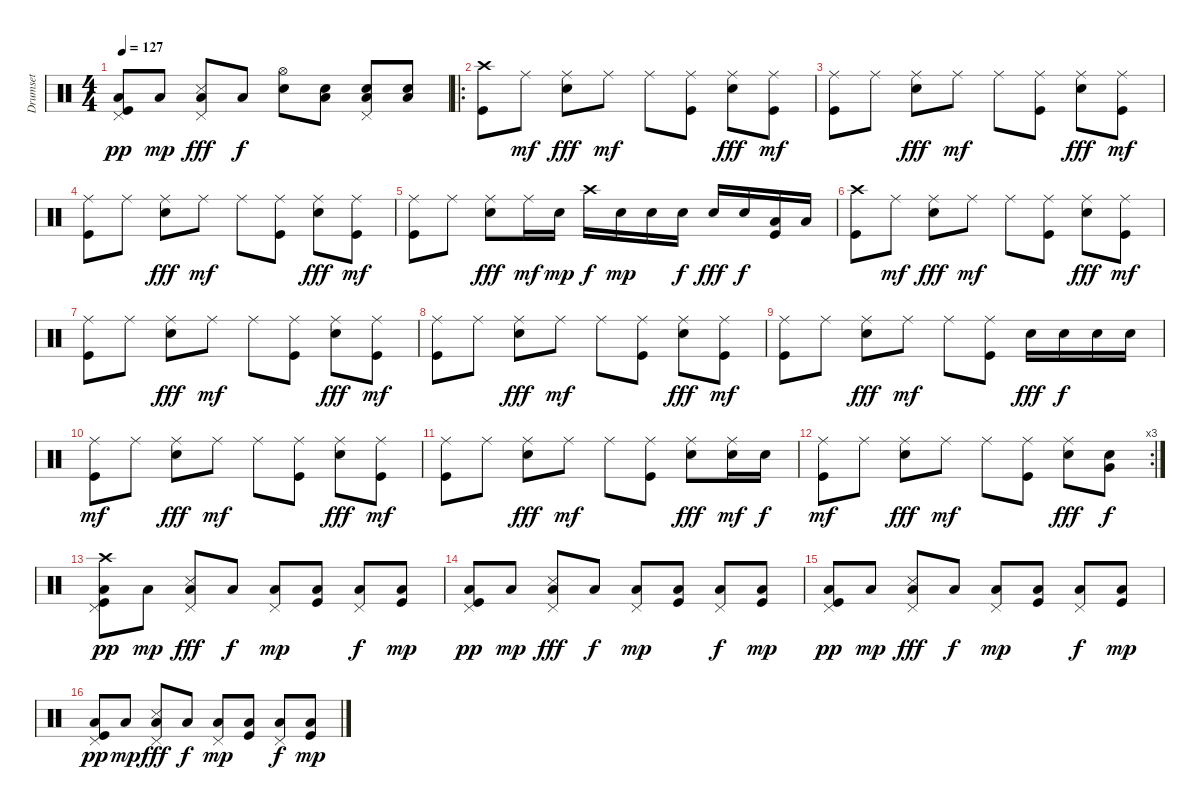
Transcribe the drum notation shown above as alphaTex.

\track ("Drumset" "Drumset") {instrument percussion}
\staff {score}
\articulation defaults
\ts (4 4)
\tempo 127
\clef neutral
\ks c
("Pedal Hi-Hat (hit)" "Low Floor Tom (hit)" "Kick (hit)").8{dy pp} "Low Floor Tom (hit)".8{dy mp} ("Pedal Hi-Hat (hit)" "Snare (side stick) 3" "Low Floor Tom (hit)").8{dy fff} "Low Floor Tom (hit)".8{dy f} ("Hi-Hat (open)" "Electric Snare (hit)").8 ("Electric Snare (hit)" "Low Floor Tom (hit)").8 ("Pedal Hi-Hat (hit)" "Electric Snare (hit)" "Low Floor Tom (hit)").8 ("Electric Snare (hit)" "Low Floor Tom (hit)").8 |
\ro
("Crash high (hit)" "Kick (hit)").8 "Ride (middle)".8{dy mf} ("Ride (middle)" "Electric Snare (hit)").8{dy fff} "Ride (middle)".8{dy mf} "Ride (middle)".8 ("Ride (middle)" "Kick (hit)").8 ("Ride (middle)" "Electric Snare (hit)").8{dy fff} ("Ride (middle)" "Kick (hit)").8{dy mf} |
("Ride (middle)" "Kick (hit)").8 "Ride (middle)".8 ("Ride (middle)" "Electric Snare (hit)").8{dy fff} "Ride (middle)".8{dy mf} "Ride (middle)".8 ("Ride (middle)" "Kick (hit)").8 ("Ride (middle)" "Electric Snare (hit)").8{dy fff} ("Ride (middle)" "Kick (hit)").8{dy mf} |
("Ride (middle)" "Kick (hit)").8 "Ride (middle)".8 ("Ride (middle)" "Electric Snare (hit)").8{dy fff} "Ride (middle)".8{dy mf} "Ride (middle)".8 ("Ride (middle)" "Kick (hit)").8 ("Ride (middle)" "Electric Snare (hit)").8{dy fff} ("Ride (middle)" "Kick (hit)").8{dy mf} |
("Ride (middle)" "Kick (hit)").8 "Ride (middle)".8 ("Ride (middle)" "Electric Snare (hit)").8{dy fff} "Ride (middle)".16{dy mf} "Electric Snare (hit)".16{dy mp} "Crash high (hit)".16{dy f} "Electric Snare (hit)".16{dy mp} "Electric Snare (hit)".16 "Electric Snare (hit)".16{dy f} "Electric Snare (hit)".16{dy fff} "Electric Snare (hit)".16{dy f} ("Low Tom (hit)" "Kick (hit)").16 "Low Tom (hit)".16 |
("Crash high (hit)" "Kick (hit)").8 "Ride (middle)".8{dy mf} ("Ride (middle)" "Electric Snare (hit)").8{dy fff} "Ride (middle)".8{dy mf} "Ride (middle)".8 ("Ride (middle)" "Kick (hit)").8 ("Ride (middle)" "Electric Snare (hit)").8{dy fff} ("Ride (middle)" "Kick (hit)").8{dy mf} |
("Ride (middle)" "Kick (hit)").8 "Ride (middle)".8 ("Ride (middle)" "Electric Snare (hit)").8{dy fff} "Ride (middle)".8{dy mf} "Ride (middle)".8 ("Ride (middle)" "Kick (hit)").8 ("Ride (middle)" "Electric Snare (hit)").8{dy fff} ("Ride (middle)" "Kick (hit)").8{dy mf} |
("Ride (middle)" "Kick (hit)").8 "Ride (middle)".8 ("Ride (middle)" "Electric Snare (hit)").8{dy fff} "Ride (middle)".8{dy mf} "Ride (middle)".8 ("Ride (middle)" "Kick (hit)").8 ("Ride (middle)" "Electric Snare (hit)").8{dy fff} ("Ride (middle)" "Kick (hit)").8{dy mf} |
("Ride (middle)" "Kick (hit)").8 "Ride (middle)".8 ("Ride (middle)" "Electric Snare (hit)").8{dy fff} "Ride (middle)".8{dy mf} "Ride (middle)".8 ("Ride (middle)" "Kick (hit)").8 "Electric Snare (hit)".16{dy fff} "Electric Snare (hit)".16{dy f} "Electric Snare (hit)".16 "Electric Snare (hit)".16 |
("Ride (middle)" "Kick (hit)").8{dy mf} "Ride (middle)".8 ("Ride (middle)" "Electric Snare (hit)").8{dy fff} "Ride (middle)".8{dy mf} "Ride (middle)".8 ("Ride (middle)" "Kick (hit)").8 ("Ride (middle)" "Electric Snare (hit)").8{dy fff} ("Ride (middle)" "Kick (hit)").8{dy mf} |
("Ride (middle)" "Kick (hit)").8 "Ride (middle)".8 ("Ride (middle)" "Electric Snare (hit)").8{dy fff} "Ride (middle)".8{dy mf} "Ride (middle)".8 ("Ride (middle)" "Kick (hit)").8 ("Ride (middle)" "Electric Snare (hit)").8{dy fff} ("Ride (middle)" "Electric Snare (hit)").16{dy mf} "Electric Snare (hit)".16{dy f} |
\rc 3
("Ride (middle)" "Kick (hit)").8{dy mf} "Ride (middle)".8 ("Ride (middle)" "Electric Snare (hit)").8{dy fff} "Ride (middle)".8{dy mf} "Ride (middle)".8 ("Ride (middle)" "Kick (hit)").8 ("Ride (middle)" "Electric Snare (hit)").8{dy fff} ("Electric Snare (hit)" "Very Low Tom (hit)").8{dy f} |
("Crash high (hit)" "Pedal Hi-Hat (hit)" "Low Floor Tom (hit)" "Kick (hit)").8{dy pp} "Low Floor Tom (hit)".8{dy mp} ("Pedal Hi-Hat (hit)" "Snare (side stick) 3" "Low Floor Tom (hit)").8{dy fff} "Low Floor Tom (hit)".8{dy f} ("Pedal Hi-Hat (hit)" "Low Floor Tom (hit)").8{dy mp} ("Low Floor Tom (hit)" "Kick (hit)").8 ("Pedal Hi-Hat (hit)" "Low Floor Tom (hit)").8{dy f} ("Low Floor Tom (hit)" "Kick (hit)").8{dy mp} |
("Pedal Hi-Hat (hit)" "Low Floor Tom (hit)" "Kick (hit)").8{dy pp} "Low Floor Tom (hit)".8{dy mp} ("Pedal Hi-Hat (hit)" "Snare (side stick) 3" "Low Floor Tom (hit)").8{dy fff} "Low Floor Tom (hit)".8{dy f} ("Pedal Hi-Hat (hit)" "Low Floor Tom (hit)").8{dy mp} ("Low Floor Tom (hit)" "Kick (hit)").8 ("Pedal Hi-Hat (hit)" "Low Floor Tom (hit)").8{dy f} ("Low Floor Tom (hit)" "Kick (hit)").8{dy mp} |
("Pedal Hi-Hat (hit)" "Low Floor Tom (hit)" "Kick (hit)").8{dy pp} "Low Floor Tom (hit)".8{dy mp} ("Pedal Hi-Hat (hit)" "Snare (side stick) 3" "Low Floor Tom (hit)").8{dy fff} "Low Floor Tom (hit)".8{dy f} ("Pedal Hi-Hat (hit)" "Low Floor Tom (hit)").8{dy mp} ("Low Floor Tom (hit)" "Kick (hit)").8 ("Pedal Hi-Hat (hit)" "Low Floor Tom (hit)").8{dy f} ("Low Floor Tom (hit)" "Kick (hit)").8{dy mp} |
("Pedal Hi-Hat (hit)" "Low Floor Tom (hit)" "Kick (hit)").8{dy pp} "Low Floor Tom (hit)".8{dy mp} ("Pedal Hi-Hat (hit)" "Snare (side stick) 3" "Low Floor Tom (hit)").8{dy fff} "Low Floor Tom (hit)".8{dy f} ("Pedal Hi-Hat (hit)" "Low Floor Tom (hit)").8{dy mp} ("Low Floor Tom (hit)" "Kick (hit)").8 ("Pedal Hi-Hat (hit)" "Low Floor Tom (hit)").8{dy f} ("Low Floor Tom (hit)" "Kick (hit)").8{dy mp}
